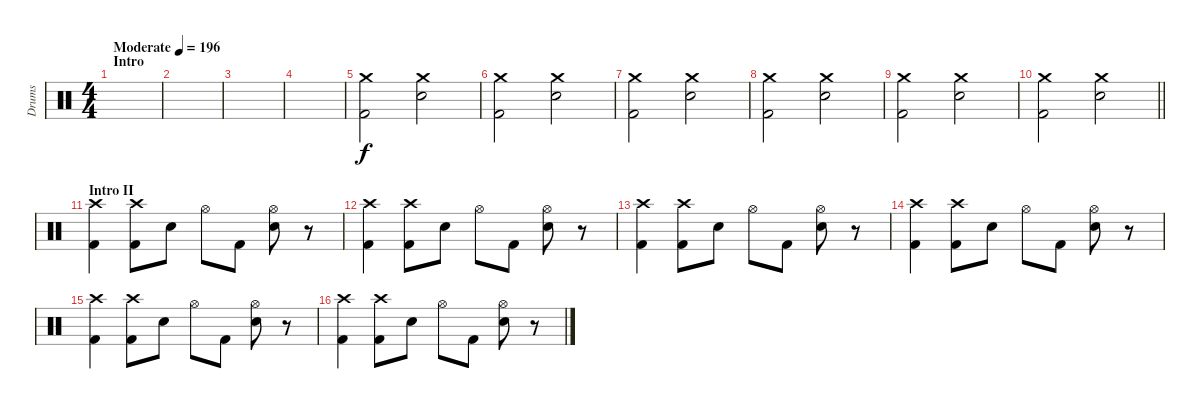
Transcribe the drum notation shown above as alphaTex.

\track ("Drums" "Drums") {instrument percussion}
\staff {score}
\articulation defaults
\ts (4 4)
\section ("" "Intro")
\tempo (196 "Moderate")
\clef neutral
\ks c
|
|
|
|
("Crash medium (hit)" "Kick (hit) 2").2 ("Crash medium (hit)" "Electric Snare (hit)").2 |
("Crash medium (hit)" "Kick (hit) 2").2 ("Crash medium (hit)" "Electric Snare (hit)").2 |
("Crash medium (hit)" "Kick (hit) 2").2 ("Crash medium (hit)" "Electric Snare (hit)").2 |
("Crash medium (hit)" "Kick (hit) 2").2 ("Crash medium (hit)" "Electric Snare (hit)").2 |
("Crash medium (hit)" "Kick (hit) 2").2 ("Crash medium (hit)" "Electric Snare (hit)").2 |
\barLineRight lightlight
("Crash medium (hit)" "Kick (hit) 2").2 ("Crash medium (hit)" "Electric Snare (hit)").2 |
\section ("" "Intro II")
("Crash high (hit)" "Kick (hit) 2").4 ("Crash high (hit)" "Kick (hit) 2").8 "Electric Snare (hit)".8 "Hi-Hat (open)".8 "Kick (hit) 2".8 ("Hi-Hat (open)" "Electric Snare (hit)").8 r.8 |
("Crash high (hit)" "Kick (hit) 2").4 ("Crash high (hit)" "Kick (hit) 2").8 "Electric Snare (hit)".8 "Hi-Hat (open)".8 "Kick (hit) 2".8 ("Hi-Hat (open)" "Electric Snare (hit)").8 r.8 |
("Crash high (hit)" "Kick (hit) 2").4 ("Crash high (hit)" "Kick (hit) 2").8 "Electric Snare (hit)".8 "Hi-Hat (open)".8 "Kick (hit) 2".8 ("Hi-Hat (open)" "Electric Snare (hit)").8 r.8 |
("Crash high (hit)" "Kick (hit) 2").4 ("Crash high (hit)" "Kick (hit) 2").8 "Electric Snare (hit)".8 "Hi-Hat (open)".8 "Kick (hit) 2".8 ("Hi-Hat (open)" "Electric Snare (hit)").8 r.8 |
("Crash high (hit)" "Kick (hit) 2").4 ("Crash high (hit)" "Kick (hit) 2").8 "Electric Snare (hit)".8 "Hi-Hat (open)".8 "Kick (hit) 2".8 ("Hi-Hat (open)" "Electric Snare (hit)").8 r.8 |
("Crash high (hit)" "Kick (hit) 2").4 ("Crash high (hit)" "Kick (hit) 2").8 "Electric Snare (hit)".8 "Hi-Hat (open)".8 "Kick (hit) 2".8 ("Hi-Hat (open)" "Electric Snare (hit)").8 r.8
